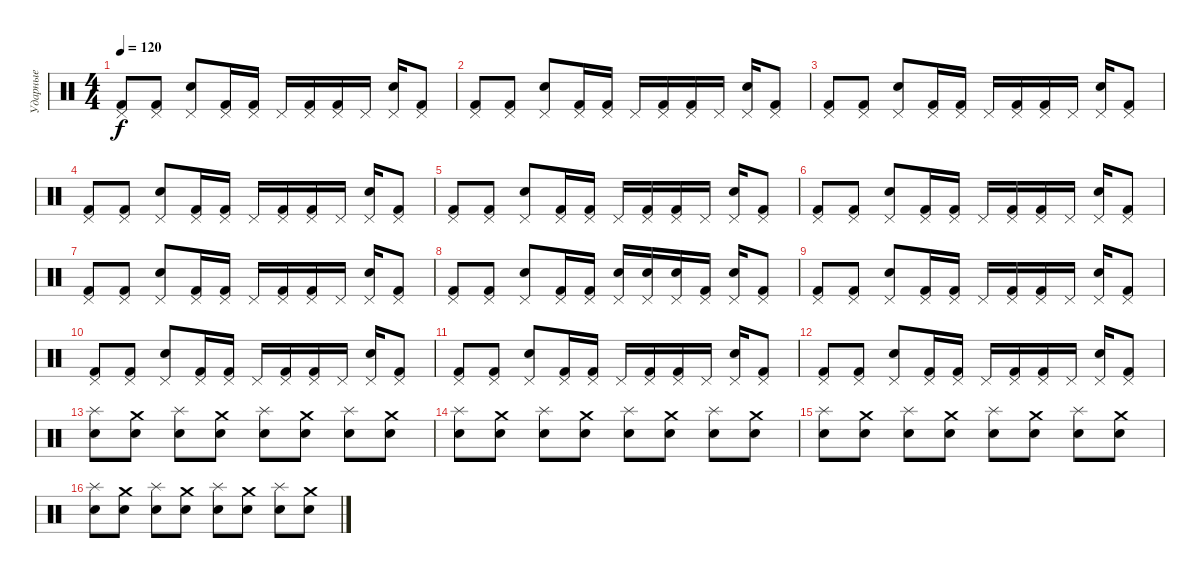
\track ("Ударные" "Ударные") {instrument percussion}
\staff {score}
\articulation defaults
\ts (4 4)
\tempo 120
\clef neutral
\ks c
("Pedal Hi-Hat (hit)" "Kick (hit) 2").8{dy f} ("Pedal Hi-Hat (hit)" "Kick (hit) 2").8 ("Pedal Hi-Hat (hit)" "Snare (hit) 2").8 ("Pedal Hi-Hat (hit)" "Kick (hit) 2").16 ("Pedal Hi-Hat (hit)" "Kick (hit) 2").16 "Pedal Hi-Hat (hit)".16 ("Pedal Hi-Hat (hit)" "Kick (hit) 2").16 ("Pedal Hi-Hat (hit)" "Kick (hit) 2").16 "Pedal Hi-Hat (hit)".16 ("Pedal Hi-Hat (hit)" "Snare (hit) 2").16 ("Pedal Hi-Hat (hit)" "Kick (hit) 2").8 |
("Pedal Hi-Hat (hit)" "Kick (hit) 2").8 ("Pedal Hi-Hat (hit)" "Kick (hit) 2").8 ("Pedal Hi-Hat (hit)" "Snare (hit) 2").8 ("Pedal Hi-Hat (hit)" "Kick (hit) 2").16 ("Pedal Hi-Hat (hit)" "Kick (hit) 2").16 "Pedal Hi-Hat (hit)".16 ("Pedal Hi-Hat (hit)" "Kick (hit) 2").16 ("Pedal Hi-Hat (hit)" "Kick (hit) 2").16 "Pedal Hi-Hat (hit)".16 ("Pedal Hi-Hat (hit)" "Snare (hit) 2").16 ("Pedal Hi-Hat (hit)" "Kick (hit) 2").8 |
("Pedal Hi-Hat (hit)" "Kick (hit) 2").8 ("Pedal Hi-Hat (hit)" "Kick (hit) 2").8 ("Pedal Hi-Hat (hit)" "Snare (hit) 2").8 ("Pedal Hi-Hat (hit)" "Kick (hit) 2").16 ("Pedal Hi-Hat (hit)" "Kick (hit) 2").16 "Pedal Hi-Hat (hit)".16 ("Pedal Hi-Hat (hit)" "Kick (hit) 2").16 ("Pedal Hi-Hat (hit)" "Kick (hit) 2").16 "Pedal Hi-Hat (hit)".16 ("Pedal Hi-Hat (hit)" "Snare (hit) 2").16 ("Pedal Hi-Hat (hit)" "Kick (hit) 2").8 |
("Pedal Hi-Hat (hit)" "Kick (hit) 2").8 ("Pedal Hi-Hat (hit)" "Kick (hit) 2").8 ("Pedal Hi-Hat (hit)" "Snare (hit) 2").8 ("Pedal Hi-Hat (hit)" "Kick (hit) 2").16 ("Pedal Hi-Hat (hit)" "Kick (hit) 2").16 "Pedal Hi-Hat (hit)".16 ("Pedal Hi-Hat (hit)" "Kick (hit) 2").16 ("Pedal Hi-Hat (hit)" "Kick (hit) 2").16 "Pedal Hi-Hat (hit)".16 ("Pedal Hi-Hat (hit)" "Snare (hit) 2").16 ("Pedal Hi-Hat (hit)" "Kick (hit) 2").8 |
("Pedal Hi-Hat (hit)" "Kick (hit) 2").8 ("Pedal Hi-Hat (hit)" "Kick (hit) 2").8 ("Pedal Hi-Hat (hit)" "Snare (hit) 2").8 ("Pedal Hi-Hat (hit)" "Kick (hit) 2").16 ("Pedal Hi-Hat (hit)" "Kick (hit) 2").16 "Pedal Hi-Hat (hit)".16 ("Pedal Hi-Hat (hit)" "Kick (hit) 2").16 ("Pedal Hi-Hat (hit)" "Kick (hit) 2").16 "Pedal Hi-Hat (hit)".16 ("Pedal Hi-Hat (hit)" "Snare (hit) 2").16 ("Pedal Hi-Hat (hit)" "Kick (hit) 2").8 |
("Pedal Hi-Hat (hit)" "Kick (hit) 2").8 ("Pedal Hi-Hat (hit)" "Kick (hit) 2").8 ("Pedal Hi-Hat (hit)" "Snare (hit) 2").8 ("Pedal Hi-Hat (hit)" "Kick (hit) 2").16 ("Pedal Hi-Hat (hit)" "Kick (hit) 2").16 "Pedal Hi-Hat (hit)".16 ("Pedal Hi-Hat (hit)" "Kick (hit) 2").16 ("Pedal Hi-Hat (hit)" "Kick (hit) 2").16 "Pedal Hi-Hat (hit)".16 ("Pedal Hi-Hat (hit)" "Snare (hit) 2").16 ("Pedal Hi-Hat (hit)" "Kick (hit) 2").8 |
("Pedal Hi-Hat (hit)" "Kick (hit) 2").8 ("Pedal Hi-Hat (hit)" "Kick (hit) 2").8 ("Pedal Hi-Hat (hit)" "Snare (hit) 2").8 ("Pedal Hi-Hat (hit)" "Kick (hit) 2").16 ("Pedal Hi-Hat (hit)" "Kick (hit) 2").16 "Pedal Hi-Hat (hit)".16 ("Pedal Hi-Hat (hit)" "Kick (hit) 2").16 ("Pedal Hi-Hat (hit)" "Kick (hit) 2").16 "Pedal Hi-Hat (hit)".16 ("Pedal Hi-Hat (hit)" "Snare (hit) 2").16 ("Pedal Hi-Hat (hit)" "Kick (hit) 2").8 |
("Pedal Hi-Hat (hit)" "Kick (hit) 2").8 ("Pedal Hi-Hat (hit)" "Kick (hit) 2").8 ("Pedal Hi-Hat (hit)" "Snare (hit) 2").8 ("Pedal Hi-Hat (hit)" "Kick (hit) 2").16 ("Pedal Hi-Hat (hit)" "Kick (hit) 2").16 ("Pedal Hi-Hat (hit)" "Electric Snare (hit)").16 ("Pedal Hi-Hat (hit)" "Snare (hit) 2").16 ("Pedal Hi-Hat (hit)" "Snare (hit) 2").16 ("Pedal Hi-Hat (hit)" "Kick (hit) 2").16 ("Pedal Hi-Hat (hit)" "Snare (hit) 2").16 ("Pedal Hi-Hat (hit)" "Kick (hit) 2").8 |
("Pedal Hi-Hat (hit)" "Kick (hit) 2").8 ("Pedal Hi-Hat (hit)" "Kick (hit) 2").8 ("Pedal Hi-Hat (hit)" "Snare (hit) 2").8 ("Pedal Hi-Hat (hit)" "Kick (hit) 2").16 ("Pedal Hi-Hat (hit)" "Kick (hit) 2").16 "Pedal Hi-Hat (hit)".16 ("Pedal Hi-Hat (hit)" "Kick (hit) 2").16 ("Pedal Hi-Hat (hit)" "Kick (hit) 2").16 "Pedal Hi-Hat (hit)".16 ("Pedal Hi-Hat (hit)" "Snare (hit) 2").16 ("Pedal Hi-Hat (hit)" "Kick (hit) 2").8 |
("Pedal Hi-Hat (hit)" "Kick (hit) 2").8 ("Pedal Hi-Hat (hit)" "Kick (hit) 2").8 ("Pedal Hi-Hat (hit)" "Snare (hit) 2").8 ("Pedal Hi-Hat (hit)" "Kick (hit) 2").16 ("Pedal Hi-Hat (hit)" "Kick (hit) 2").16 "Pedal Hi-Hat (hit)".16 ("Pedal Hi-Hat (hit)" "Kick (hit) 2").16 ("Pedal Hi-Hat (hit)" "Kick (hit) 2").16 "Pedal Hi-Hat (hit)".16 ("Pedal Hi-Hat (hit)" "Snare (hit) 2").16 ("Pedal Hi-Hat (hit)" "Kick (hit) 2").8 |
("Pedal Hi-Hat (hit)" "Kick (hit) 2").8 ("Pedal Hi-Hat (hit)" "Kick (hit) 2").8 ("Pedal Hi-Hat (hit)" "Snare (hit) 2").8 ("Pedal Hi-Hat (hit)" "Kick (hit) 2").16 ("Pedal Hi-Hat (hit)" "Kick (hit) 2").16 "Pedal Hi-Hat (hit)".16 ("Pedal Hi-Hat (hit)" "Kick (hit) 2").16 ("Pedal Hi-Hat (hit)" "Kick (hit) 2").16 "Pedal Hi-Hat (hit)".16 ("Pedal Hi-Hat (hit)" "Snare (hit) 2").16 ("Pedal Hi-Hat (hit)" "Kick (hit) 2").8 |
("Pedal Hi-Hat (hit)" "Kick (hit) 2").8 ("Pedal Hi-Hat (hit)" "Kick (hit) 2").8 ("Pedal Hi-Hat (hit)" "Snare (hit) 2").8 ("Pedal Hi-Hat (hit)" "Kick (hit) 2").16 ("Pedal Hi-Hat (hit)" "Kick (hit) 2").16 "Pedal Hi-Hat (hit)".16 ("Pedal Hi-Hat (hit)" "Kick (hit) 2").16 ("Pedal Hi-Hat (hit)" "Kick (hit) 2").16 "Pedal Hi-Hat (hit)".16 ("Pedal Hi-Hat (hit)" "Snare (hit) 2").16 ("Pedal Hi-Hat (hit)" "Kick (hit) 2").8 |
("Splash (hit)" "Snare (hit) 2").8 ("Crash medium (hit)" "Snare (hit) 2").8 ("Splash (hit)" "Snare (hit) 2").8 ("Crash medium (hit)" "Snare (hit) 2").8 ("Splash (hit)" "Snare (hit) 2").8 ("Crash medium (hit)" "Snare (hit) 2").8 ("Splash (hit)" "Snare (hit) 2").8 ("Crash medium (hit)" "Snare (hit) 2").8 |
("Splash (hit)" "Snare (hit) 2").8 ("Crash medium (hit)" "Snare (hit) 2").8 ("Splash (hit)" "Snare (hit) 2").8 ("Crash medium (hit)" "Snare (hit) 2").8 ("Splash (hit)" "Snare (hit) 2").8 ("Crash medium (hit)" "Snare (hit) 2").8 ("Splash (hit)" "Snare (hit) 2").8 ("Crash medium (hit)" "Snare (hit) 2").8 |
("Splash (hit)" "Snare (hit) 2").8 ("Crash medium (hit)" "Snare (hit) 2").8 ("Splash (hit)" "Snare (hit) 2").8 ("Crash medium (hit)" "Snare (hit) 2").8 ("Splash (hit)" "Snare (hit) 2").8 ("Crash medium (hit)" "Snare (hit) 2").8 ("Splash (hit)" "Snare (hit) 2").8 ("Crash medium (hit)" "Snare (hit) 2").8 |
("Splash (hit)" "Snare (hit) 2").8 ("Crash medium (hit)" "Snare (hit) 2").8 ("Splash (hit)" "Snare (hit) 2").8 ("Crash medium (hit)" "Snare (hit) 2").8 ("Splash (hit)" "Snare (hit) 2").8 ("Crash medium (hit)" "Snare (hit) 2").8 ("Splash (hit)" "Snare (hit) 2").8 ("Crash medium (hit)" "Snare (hit) 2").8
